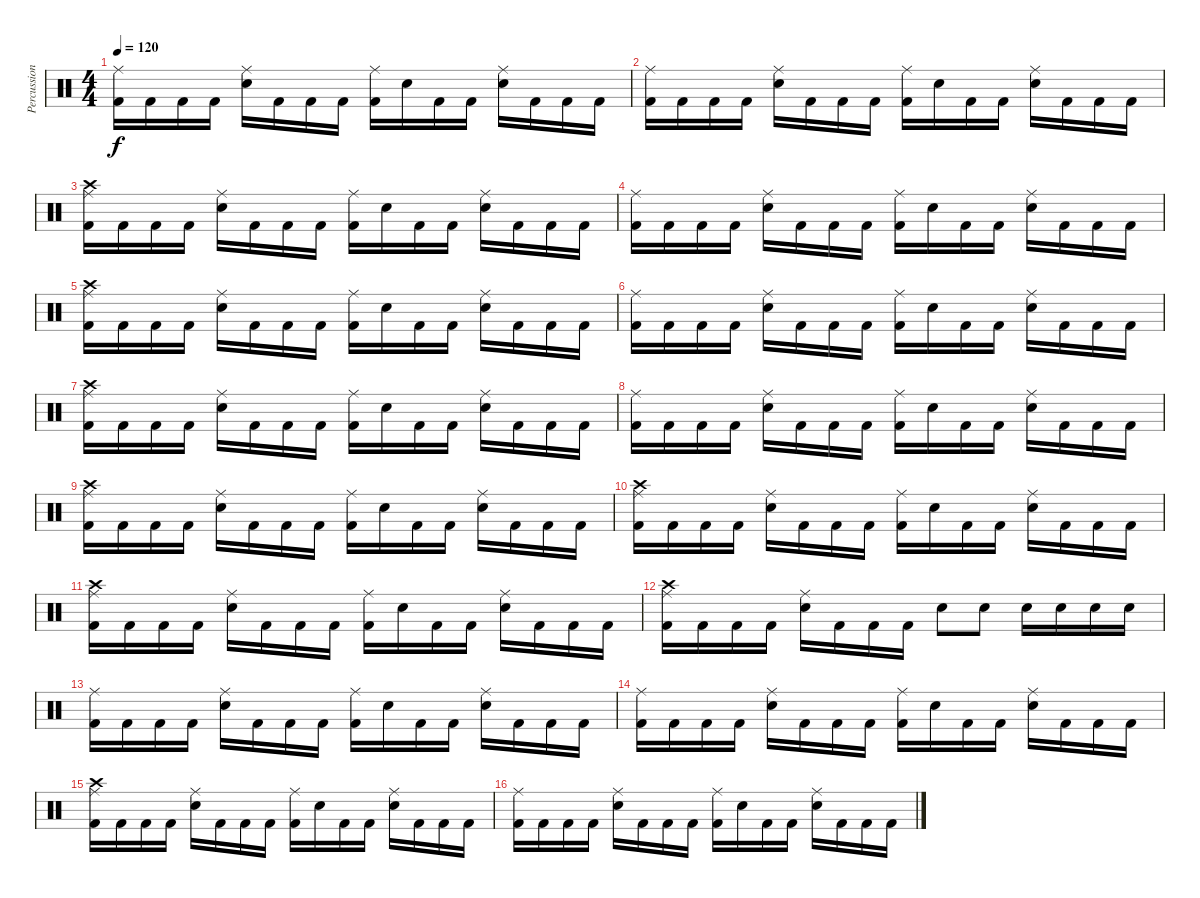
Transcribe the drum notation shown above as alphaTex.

\track ("Percussion" "Percussion") {instrument percussion}
\staff {score}
\articulation defaults
\ts (4 4)
\tempo 120
\clef neutral
\ks c
("Ride (middle)" "Kick (hit) 2").16{dy f} "Kick (hit) 2".16 "Kick (hit) 2".16 "Kick (hit) 2".16 ("Ride (middle)" "Snare (hit) 2").16 "Kick (hit) 2".16 "Kick (hit) 2".16 "Kick (hit) 2".16 ("Ride (middle)" "Kick (hit) 2").16 "Snare (hit) 2".16 "Kick (hit) 2".16 "Kick (hit) 2".16 ("Ride (middle)" "Snare (hit) 2").16 "Kick (hit) 2".16 "Kick (hit) 2".16 "Kick (hit) 2".16 |
("Ride (middle)" "Kick (hit) 2").16 "Kick (hit) 2".16 "Kick (hit) 2".16 "Kick (hit) 2".16 ("Ride (middle)" "Snare (hit) 2").16 "Kick (hit) 2".16 "Kick (hit) 2".16 "Kick (hit) 2".16 ("Ride (middle)" "Kick (hit) 2").16 "Snare (hit) 2".16 "Kick (hit) 2".16 "Kick (hit) 2".16 ("Ride (middle)" "Snare (hit) 2").16 "Kick (hit) 2".16 "Kick (hit) 2".16 "Kick (hit) 2".16 |
("Ride (middle)" "Crash high (hit)" "Kick (hit) 2").16 "Kick (hit) 2".16 "Kick (hit) 2".16 "Kick (hit) 2".16 ("Ride (middle)" "Snare (hit) 2").16 "Kick (hit) 2".16 "Kick (hit) 2".16 "Kick (hit) 2".16 ("Ride (middle)" "Kick (hit) 2").16 "Snare (hit) 2".16 "Kick (hit) 2".16 "Kick (hit) 2".16 ("Ride (middle)" "Snare (hit) 2").16 "Kick (hit) 2".16 "Kick (hit) 2".16 "Kick (hit) 2".16 |
("Ride (middle)" "Kick (hit) 2").16 "Kick (hit) 2".16 "Kick (hit) 2".16 "Kick (hit) 2".16 ("Ride (middle)" "Snare (hit) 2").16 "Kick (hit) 2".16 "Kick (hit) 2".16 "Kick (hit) 2".16 ("Ride (middle)" "Kick (hit) 2").16 "Snare (hit) 2".16 "Kick (hit) 2".16 "Kick (hit) 2".16 ("Ride (middle)" "Snare (hit) 2").16 "Kick (hit) 2".16 "Kick (hit) 2".16 "Kick (hit) 2".16 |
("Ride (middle)" "Crash high (hit)" "Kick (hit) 2").16 "Kick (hit) 2".16 "Kick (hit) 2".16 "Kick (hit) 2".16 ("Ride (middle)" "Snare (hit) 2").16 "Kick (hit) 2".16 "Kick (hit) 2".16 "Kick (hit) 2".16 ("Ride (middle)" "Kick (hit) 2").16 "Snare (hit) 2".16 "Kick (hit) 2".16 "Kick (hit) 2".16 ("Ride (middle)" "Snare (hit) 2").16 "Kick (hit) 2".16 "Kick (hit) 2".16 "Kick (hit) 2".16 |
("Ride (middle)" "Kick (hit) 2").16 "Kick (hit) 2".16 "Kick (hit) 2".16 "Kick (hit) 2".16 ("Ride (middle)" "Snare (hit) 2").16 "Kick (hit) 2".16 "Kick (hit) 2".16 "Kick (hit) 2".16 ("Ride (middle)" "Kick (hit) 2").16 "Snare (hit) 2".16 "Kick (hit) 2".16 "Kick (hit) 2".16 ("Ride (middle)" "Snare (hit) 2").16 "Kick (hit) 2".16 "Kick (hit) 2".16 "Kick (hit) 2".16 |
("Ride (middle)" "Crash high (hit)" "Kick (hit) 2").16 "Kick (hit) 2".16 "Kick (hit) 2".16 "Kick (hit) 2".16 ("Ride (middle)" "Snare (hit) 2").16 "Kick (hit) 2".16 "Kick (hit) 2".16 "Kick (hit) 2".16 ("Ride (middle)" "Kick (hit) 2").16 "Snare (hit) 2".16 "Kick (hit) 2".16 "Kick (hit) 2".16 ("Ride (middle)" "Snare (hit) 2").16 "Kick (hit) 2".16 "Kick (hit) 2".16 "Kick (hit) 2".16 |
("Ride (middle)" "Kick (hit) 2").16 "Kick (hit) 2".16 "Kick (hit) 2".16 "Kick (hit) 2".16 ("Ride (middle)" "Snare (hit) 2").16 "Kick (hit) 2".16 "Kick (hit) 2".16 "Kick (hit) 2".16 ("Ride (middle)" "Kick (hit) 2").16 "Snare (hit) 2".16 "Kick (hit) 2".16 "Kick (hit) 2".16 ("Ride (middle)" "Snare (hit) 2").16 "Kick (hit) 2".16 "Kick (hit) 2".16 "Kick (hit) 2".16 |
("Ride (middle)" "Crash high (hit)" "Kick (hit) 2").16 "Kick (hit) 2".16 "Kick (hit) 2".16 "Kick (hit) 2".16 ("Ride (middle)" "Snare (hit) 2").16 "Kick (hit) 2".16 "Kick (hit) 2".16 "Kick (hit) 2".16 ("Ride (middle)" "Kick (hit) 2").16 "Snare (hit) 2".16 "Kick (hit) 2".16 "Kick (hit) 2".16 ("Ride (middle)" "Snare (hit) 2").16 "Kick (hit) 2".16 "Kick (hit) 2".16 "Kick (hit) 2".16 |
("Ride (middle)" "Crash high (hit)" "Kick (hit) 2").16 "Kick (hit) 2".16 "Kick (hit) 2".16 "Kick (hit) 2".16 ("Ride (middle)" "Snare (hit) 2").16 "Kick (hit) 2".16 "Kick (hit) 2".16 "Kick (hit) 2".16 ("Ride (middle)" "Kick (hit) 2").16 "Snare (hit) 2".16 "Kick (hit) 2".16 "Kick (hit) 2".16 ("Ride (middle)" "Snare (hit) 2").16 "Kick (hit) 2".16 "Kick (hit) 2".16 "Kick (hit) 2".16 |
("Ride (middle)" "Crash high (hit)" "Kick (hit) 2").16 "Kick (hit) 2".16 "Kick (hit) 2".16 "Kick (hit) 2".16 ("Ride (middle)" "Snare (hit) 2").16 "Kick (hit) 2".16 "Kick (hit) 2".16 "Kick (hit) 2".16 ("Ride (middle)" "Kick (hit) 2").16 "Snare (hit) 2".16 "Kick (hit) 2".16 "Kick (hit) 2".16 ("Ride (middle)" "Snare (hit) 2").16 "Kick (hit) 2".16 "Kick (hit) 2".16 "Kick (hit) 2".16 |
("Ride (middle)" "Crash high (hit)" "Kick (hit) 2").16 "Kick (hit) 2".16 "Kick (hit) 2".16 "Kick (hit) 2".16 ("Ride (middle)" "Snare (hit) 2").16 "Kick (hit) 2".16 "Kick (hit) 2".16 "Kick (hit) 2".16 "Snare (hit) 2".8 "Snare (hit) 2".8 "Snare (hit) 2".16 "Snare (hit) 2".16 "Snare (hit) 2".16 "Snare (hit) 2".16 |
("Ride (middle)" "Kick (hit) 2").16 "Kick (hit) 2".16 "Kick (hit) 2".16 "Kick (hit) 2".16 ("Ride (middle)" "Snare (hit) 2").16 "Kick (hit) 2".16 "Kick (hit) 2".16 "Kick (hit) 2".16 ("Ride (middle)" "Kick (hit) 2").16 "Snare (hit) 2".16 "Kick (hit) 2".16 "Kick (hit) 2".16 ("Ride (middle)" "Snare (hit) 2").16 "Kick (hit) 2".16 "Kick (hit) 2".16 "Kick (hit) 2".16 |
("Ride (middle)" "Kick (hit) 2").16 "Kick (hit) 2".16 "Kick (hit) 2".16 "Kick (hit) 2".16 ("Ride (middle)" "Snare (hit) 2").16 "Kick (hit) 2".16 "Kick (hit) 2".16 "Kick (hit) 2".16 ("Ride (middle)" "Kick (hit) 2").16 "Snare (hit) 2".16 "Kick (hit) 2".16 "Kick (hit) 2".16 ("Ride (middle)" "Snare (hit) 2").16 "Kick (hit) 2".16 "Kick (hit) 2".16 "Kick (hit) 2".16 |
("Ride (middle)" "Crash high (hit)" "Kick (hit) 2").16 "Kick (hit) 2".16 "Kick (hit) 2".16 "Kick (hit) 2".16 ("Ride (middle)" "Snare (hit) 2").16 "Kick (hit) 2".16 "Kick (hit) 2".16 "Kick (hit) 2".16 ("Ride (middle)" "Kick (hit) 2").16 "Snare (hit) 2".16 "Kick (hit) 2".16 "Kick (hit) 2".16 ("Ride (middle)" "Snare (hit) 2").16 "Kick (hit) 2".16 "Kick (hit) 2".16 "Kick (hit) 2".16 |
("Ride (middle)" "Kick (hit) 2").16 "Kick (hit) 2".16 "Kick (hit) 2".16 "Kick (hit) 2".16 ("Ride (middle)" "Snare (hit) 2").16 "Kick (hit) 2".16 "Kick (hit) 2".16 "Kick (hit) 2".16 ("Ride (middle)" "Kick (hit) 2").16 "Snare (hit) 2".16 "Kick (hit) 2".16 "Kick (hit) 2".16 ("Ride (middle)" "Snare (hit) 2").16 "Kick (hit) 2".16 "Kick (hit) 2".16 "Kick (hit) 2".16
